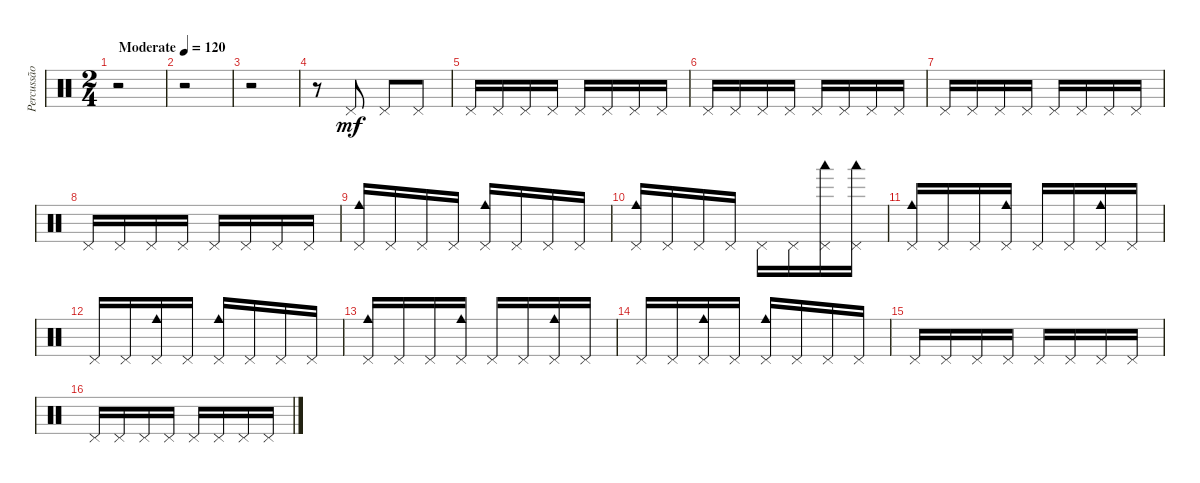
\track ("Percussão" "Percussão") {instrument percussion}
\staff {score}
\articulation defaults
\ts (2 4)
\tempo (120 "Moderate")
\clef neutral
\ks c
r.2{dy mf} |
r.2 |
r.2 |
r.8 "Pedal Hi-Hat (hit)".8 "Pedal Hi-Hat (hit)".8 "Pedal Hi-Hat (hit)".8 |
"Pedal Hi-Hat (hit)".16 "Pedal Hi-Hat (hit)".16 "Pedal Hi-Hat (hit)".16 "Pedal Hi-Hat (hit)".16 "Pedal Hi-Hat (hit)".16 "Pedal Hi-Hat (hit)".16 "Pedal Hi-Hat (hit)".16 "Pedal Hi-Hat (hit)".16 |
"Pedal Hi-Hat (hit)".16 "Pedal Hi-Hat (hit)".16 "Pedal Hi-Hat (hit)".16 "Pedal Hi-Hat (hit)".16 "Pedal Hi-Hat (hit)".16 "Pedal Hi-Hat (hit)".16 "Pedal Hi-Hat (hit)".16 "Pedal Hi-Hat (hit)".16 |
"Pedal Hi-Hat (hit)".16 "Pedal Hi-Hat (hit)".16 "Pedal Hi-Hat (hit)".16 "Pedal Hi-Hat (hit)".16 "Pedal Hi-Hat (hit)".16 "Pedal Hi-Hat (hit)".16 "Pedal Hi-Hat (hit)".16 "Pedal Hi-Hat (hit)".16 |
"Pedal Hi-Hat (hit)".16 "Pedal Hi-Hat (hit)".16 "Pedal Hi-Hat (hit)".16 "Pedal Hi-Hat (hit)".16 "Pedal Hi-Hat (hit)".16 "Pedal Hi-Hat (hit)".16 "Pedal Hi-Hat (hit)".16 "Pedal Hi-Hat (hit)".16 |
("Pedal Hi-Hat (hit)" "Cowbell medium (hit)").16 "Pedal Hi-Hat (hit)".16 "Pedal Hi-Hat (hit)".16 "Pedal Hi-Hat (hit)".16 ("Pedal Hi-Hat (hit)" "Cowbell medium (hit)").16 "Pedal Hi-Hat (hit)".16 "Pedal Hi-Hat (hit)".16 "Pedal Hi-Hat (hit)".16 |
("Pedal Hi-Hat (hit)" "Cowbell medium (hit)").16 "Pedal Hi-Hat (hit)".16 "Pedal Hi-Hat (hit)".16 "Pedal Hi-Hat (hit)".16 "Pedal Hi-Hat (hit)".16 "Pedal Hi-Hat (hit)".16 ("Woodblock low (hit)" "Pedal Hi-Hat (hit)").16 ("Pedal Hi-Hat (hit)" "Woodblock low (hit)").16 |
("Pedal Hi-Hat (hit)" "Cowbell medium (hit)").16 "Pedal Hi-Hat (hit)".16 "Pedal Hi-Hat (hit)".16 ("Pedal Hi-Hat (hit)" "Cowbell medium (hit)").16 "Pedal Hi-Hat (hit)".16 "Pedal Hi-Hat (hit)".16 ("Pedal Hi-Hat (hit)" "Cowbell medium (hit)").16 "Pedal Hi-Hat (hit)".16 |
"Pedal Hi-Hat (hit)".16 "Pedal Hi-Hat (hit)".16 ("Pedal Hi-Hat (hit)" "Cowbell medium (hit)").16 "Pedal Hi-Hat (hit)".16 ("Pedal Hi-Hat (hit)" "Cowbell medium (hit)").16 "Pedal Hi-Hat (hit)".16 "Pedal Hi-Hat (hit)".16 "Pedal Hi-Hat (hit)".16 |
("Pedal Hi-Hat (hit)" "Cowbell medium (hit)").16 "Pedal Hi-Hat (hit)".16 "Pedal Hi-Hat (hit)".16 ("Pedal Hi-Hat (hit)" "Cowbell medium (hit)").16 "Pedal Hi-Hat (hit)".16 "Pedal Hi-Hat (hit)".16 ("Pedal Hi-Hat (hit)" "Cowbell medium (hit)").16 "Pedal Hi-Hat (hit)".16 |
"Pedal Hi-Hat (hit)".16 "Pedal Hi-Hat (hit)".16 ("Pedal Hi-Hat (hit)" "Cowbell medium (hit)").16 "Pedal Hi-Hat (hit)".16 ("Pedal Hi-Hat (hit)" "Cowbell medium (hit)").16 "Pedal Hi-Hat (hit)".16 "Pedal Hi-Hat (hit)".16 "Pedal Hi-Hat (hit)".16 |
"Pedal Hi-Hat (hit)".16 "Pedal Hi-Hat (hit)".16 "Pedal Hi-Hat (hit)".16 "Pedal Hi-Hat (hit)".16 "Pedal Hi-Hat (hit)".16 "Pedal Hi-Hat (hit)".16 "Pedal Hi-Hat (hit)".16 "Pedal Hi-Hat (hit)".16 |
"Pedal Hi-Hat (hit)".16 "Pedal Hi-Hat (hit)".16 "Pedal Hi-Hat (hit)".16 "Pedal Hi-Hat (hit)".16 "Pedal Hi-Hat (hit)".16 "Pedal Hi-Hat (hit)".16 "Pedal Hi-Hat (hit)".16 "Pedal Hi-Hat (hit)".16
